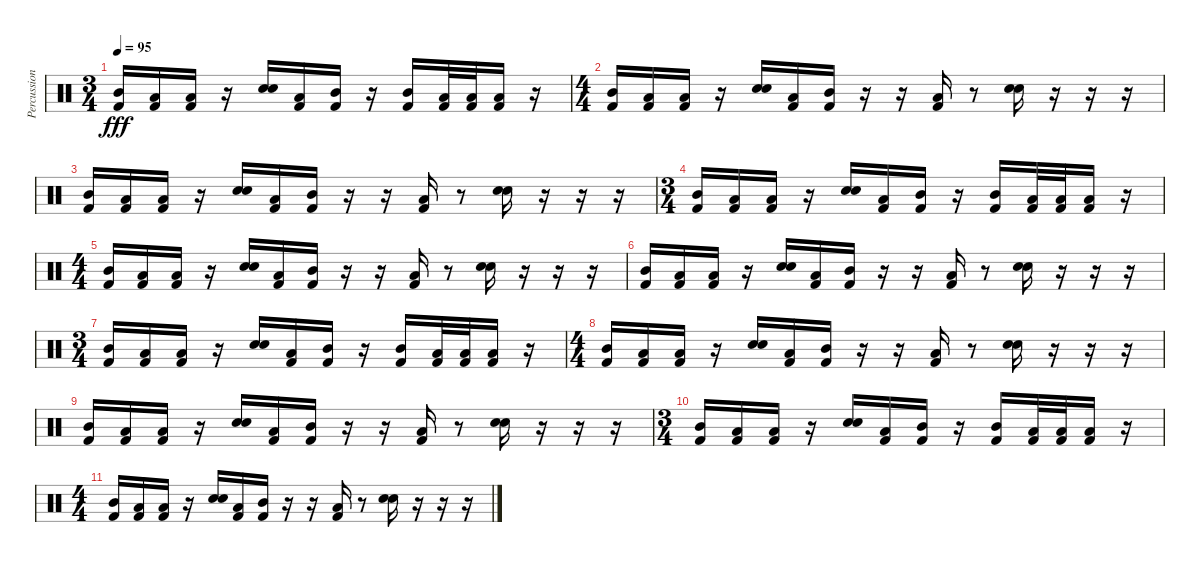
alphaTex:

\track ("Percussion" "Percussion") {instrument percussion}
\staff {score}
\articulation defaults
\ts (3 4)
\tempo 95
\clef neutral
\ks c
("Mid Tom (hit)" "Kick (hit) 2").16{dy fff} ("Low Floor Tom (hit)" "Kick (hit) 2").16 ("Low Floor Tom (hit)" "Kick (hit) 2").16 r.16 ("Hand Clap (hit)" "Electric Snare (hit)").16 ("Low Floor Tom (hit)" "Kick (hit) 2").16 ("Mid Tom (hit)" "Kick (hit) 2").16 r.16 ("Mid Tom (hit)" "Kick (hit) 2").16 ("Low Floor Tom (hit)" "Kick (hit) 2").32 ("Low Floor Tom (hit)" "Kick (hit) 2").32 ("Low Floor Tom (hit)" "Kick (hit) 2").16 r.16 |
\ts (4 4)
("Mid Tom (hit)" "Kick (hit) 2").16 ("Low Floor Tom (hit)" "Kick (hit) 2").16 ("Low Floor Tom (hit)" "Kick (hit) 2").16 r.16 ("Hand Clap (hit)" "Electric Snare (hit)").16 ("Low Floor Tom (hit)" "Kick (hit) 2").16 ("Mid Tom (hit)" "Kick (hit) 2").16 r.16 r.16 ("Low Floor Tom (hit)" "Kick (hit) 2").16 r.8 ("Hand Clap (hit)" "Electric Snare (hit)").16 r.16 r.16 r.16 |
("Mid Tom (hit)" "Kick (hit) 2").16 ("Low Floor Tom (hit)" "Kick (hit) 2").16 ("Low Floor Tom (hit)" "Kick (hit) 2").16 r.16 ("Hand Clap (hit)" "Electric Snare (hit)").16 ("Low Floor Tom (hit)" "Kick (hit) 2").16 ("Mid Tom (hit)" "Kick (hit) 2").16 r.16 r.16 ("Low Floor Tom (hit)" "Kick (hit) 2").16 r.8 ("Hand Clap (hit)" "Electric Snare (hit)").16 r.16 r.16 r.16 |
\ts (3 4)
("Mid Tom (hit)" "Kick (hit) 2").16 ("Low Floor Tom (hit)" "Kick (hit) 2").16 ("Low Floor Tom (hit)" "Kick (hit) 2").16 r.16 ("Hand Clap (hit)" "Electric Snare (hit)").16 ("Low Floor Tom (hit)" "Kick (hit) 2").16 ("Mid Tom (hit)" "Kick (hit) 2").16 r.16 ("Mid Tom (hit)" "Kick (hit) 2").16 ("Low Floor Tom (hit)" "Kick (hit) 2").32 ("Low Floor Tom (hit)" "Kick (hit) 2").32 ("Low Floor Tom (hit)" "Kick (hit) 2").16 r.16 |
\ts (4 4)
("Mid Tom (hit)" "Kick (hit) 2").16{volume 0} ("Low Floor Tom (hit)" "Kick (hit) 2").16 ("Low Floor Tom (hit)" "Kick (hit) 2").16 r.16 ("Hand Clap (hit)" "Electric Snare (hit)").16 ("Low Floor Tom (hit)" "Kick (hit) 2").16 ("Mid Tom (hit)" "Kick (hit) 2").16 r.16 r.16 ("Low Floor Tom (hit)" "Kick (hit) 2").16 r.8 ("Hand Clap (hit)" "Electric Snare (hit)").16 r.16 r.16 r.16 |
("Mid Tom (hit)" "Kick (hit) 2").16 ("Low Floor Tom (hit)" "Kick (hit) 2").16 ("Low Floor Tom (hit)" "Kick (hit) 2").16 r.16 ("Hand Clap (hit)" "Electric Snare (hit)").16 ("Low Floor Tom (hit)" "Kick (hit) 2").16 ("Mid Tom (hit)" "Kick (hit) 2").16 r.16 r.16 ("Low Floor Tom (hit)" "Kick (hit) 2").16 r.8 ("Hand Clap (hit)" "Electric Snare (hit)").16 r.16 r.16 r.16 |
\ts (3 4)
("Mid Tom (hit)" "Kick (hit) 2").16 ("Low Floor Tom (hit)" "Kick (hit) 2").16 ("Low Floor Tom (hit)" "Kick (hit) 2").16 r.16 ("Hand Clap (hit)" "Electric Snare (hit)").16 ("Low Floor Tom (hit)" "Kick (hit) 2").16 ("Mid Tom (hit)" "Kick (hit) 2").16 r.16 ("Mid Tom (hit)" "Kick (hit) 2").16 ("Low Floor Tom (hit)" "Kick (hit) 2").32 ("Low Floor Tom (hit)" "Kick (hit) 2").32 ("Low Floor Tom (hit)" "Kick (hit) 2").16 r.16 |
\ts (4 4)
("Mid Tom (hit)" "Kick (hit) 2").16 ("Low Floor Tom (hit)" "Kick (hit) 2").16 ("Low Floor Tom (hit)" "Kick (hit) 2").16 r.16 ("Hand Clap (hit)" "Electric Snare (hit)").16 ("Low Floor Tom (hit)" "Kick (hit) 2").16 ("Mid Tom (hit)" "Kick (hit) 2").16 r.16 r.16 ("Low Floor Tom (hit)" "Kick (hit) 2").16 r.8 ("Hand Clap (hit)" "Electric Snare (hit)").16 r.16 r.16 r.16 |
("Mid Tom (hit)" "Kick (hit) 2").16 ("Low Floor Tom (hit)" "Kick (hit) 2").16 ("Low Floor Tom (hit)" "Kick (hit) 2").16 r.16 ("Hand Clap (hit)" "Electric Snare (hit)").16 ("Low Floor Tom (hit)" "Kick (hit) 2").16 ("Mid Tom (hit)" "Kick (hit) 2").16 r.16 r.16 ("Low Floor Tom (hit)" "Kick (hit) 2").16 r.8 ("Hand Clap (hit)" "Electric Snare (hit)").16 r.16 r.16 r.16 |
\ts (3 4)
("Mid Tom (hit)" "Kick (hit) 2").16 ("Low Floor Tom (hit)" "Kick (hit) 2").16 ("Low Floor Tom (hit)" "Kick (hit) 2").16 r.16 ("Hand Clap (hit)" "Electric Snare (hit)").16 ("Low Floor Tom (hit)" "Kick (hit) 2").16 ("Mid Tom (hit)" "Kick (hit) 2").16 r.16 ("Mid Tom (hit)" "Kick (hit) 2").16 ("Low Floor Tom (hit)" "Kick (hit) 2").32 ("Low Floor Tom (hit)" "Kick (hit) 2").32 ("Low Floor Tom (hit)" "Kick (hit) 2").16 r.16 |
\ts (4 4)
("Mid Tom (hit)" "Kick (hit) 2").16 ("Low Floor Tom (hit)" "Kick (hit) 2").16 ("Low Floor Tom (hit)" "Kick (hit) 2").16 r.16 ("Hand Clap (hit)" "Electric Snare (hit)").16 ("Low Floor Tom (hit)" "Kick (hit) 2").16 ("Mid Tom (hit)" "Kick (hit) 2").16 r.16 r.16 ("Low Floor Tom (hit)" "Kick (hit) 2").16 r.8 ("Hand Clap (hit)" "Electric Snare (hit)").16 r.16 r.16 r.16
